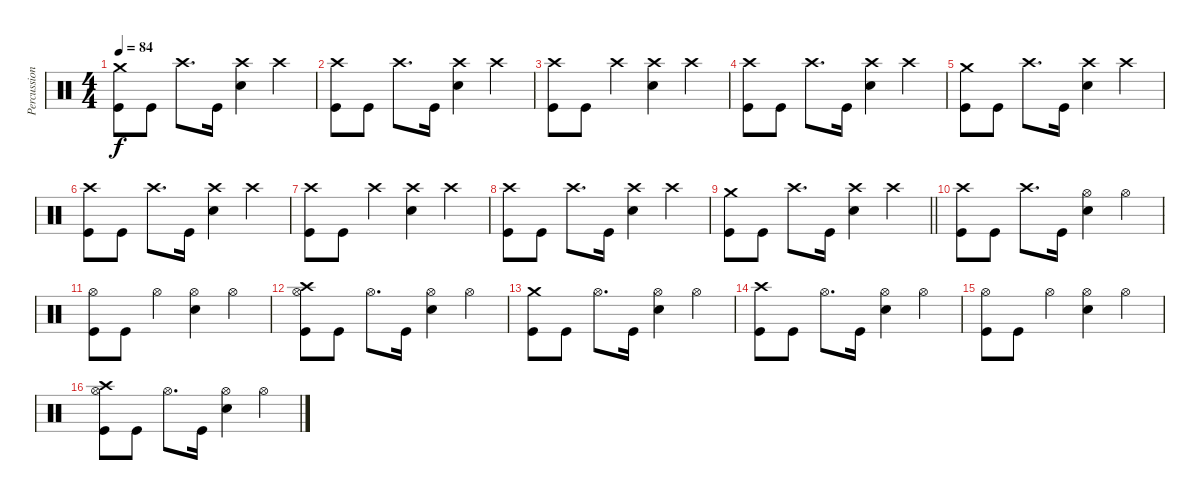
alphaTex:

\track ("Percussions" "Percussion") {instrument percussion}
\staff {score}
\articulation defaults
\ts (4 4)
\tempo 84
\clef neutral
\ks c
("Crash medium (hit)" "Kick (hit)").8{dy f} "Kick (hit)".8 "Crash high (hit)".8{d} "Kick (hit)".16 ("Electric Snare (hit)" "Crash high (hit)").4 "Crash high (hit)".4 |
("Crash high (hit)" "Kick (hit)").8 "Kick (hit)".8 "Crash high (hit)".8{d} "Kick (hit)".16 ("Electric Snare (hit)" "Crash high (hit)").4 "Crash high (hit)".4 |
("Crash high (hit)" "Kick (hit)").8 "Kick (hit)".8 "Crash high (hit)".4 ("Electric Snare (hit)" "Crash high (hit)").4 "Crash high (hit)".4 |
("Crash high (hit)" "Kick (hit)").8 "Kick (hit)".8 "Crash high (hit)".8{d} "Kick (hit)".16 ("Electric Snare (hit)" "Crash high (hit)").4 "Crash high (hit)".4 |
("Crash medium (hit)" "Kick (hit)").8 "Kick (hit)".8 "Crash high (hit)".8{d} "Kick (hit)".16 ("Electric Snare (hit)" "Crash high (hit)").4 "Crash high (hit)".4 |
("Crash high (hit)" "Kick (hit)").8 "Kick (hit)".8 "Crash high (hit)".8{d} "Kick (hit)".16 ("Electric Snare (hit)" "Crash high (hit)").4 "Crash high (hit)".4 |
("Crash high (hit)" "Kick (hit)").8 "Kick (hit)".8 "Crash high (hit)".4 ("Electric Snare (hit)" "Crash high (hit)").4 "Crash high (hit)".4 |
("Crash high (hit)" "Kick (hit)").8 "Kick (hit)".8 "Crash high (hit)".8{d} "Kick (hit)".16 ("Electric Snare (hit)" "Crash high (hit)").4 "Crash high (hit)".4 |
\barLineRight lightlight
("Crash medium (hit)" "Kick (hit)").8 "Kick (hit)".8 "Crash high (hit)".8{d} "Kick (hit)".16 ("Electric Snare (hit)" "Crash high (hit)").4 "Crash high (hit)".4 |
\section ("" "")
("Crash high (hit)" "Kick (hit)").8 "Kick (hit)".8 "Crash high (hit)".8{d} "Kick (hit)".16 ("Electric Snare (hit)" "Hi-Hat (open)").4 "Hi-Hat (open)".4 |
("Hi-Hat (open)" "Kick (hit)").8 "Kick (hit)".8 "Hi-Hat (open)".4 ("Electric Snare (hit)" "Hi-Hat (open)").4 "Hi-Hat (open)".4 |
("Crash high (hit)" "Hi-Hat (open)" "Kick (hit)").8 "Kick (hit)".8 "Hi-Hat (open)".8{d} "Kick (hit)".16 ("Electric Snare (hit)" "Hi-Hat (open)").4 "Hi-Hat (open)".4 |
("Crash medium (hit)" "Kick (hit)").8 "Kick (hit)".8 "Hi-Hat (open)".8{d} "Kick (hit)".16 ("Electric Snare (hit)" "Hi-Hat (open)").4 "Hi-Hat (open)".4 |
("Crash high (hit)" "Kick (hit)").8 "Kick (hit)".8 "Hi-Hat (open)".8{d} "Kick (hit)".16 ("Electric Snare (hit)" "Hi-Hat (open)").4 "Hi-Hat (open)".4 |
("Hi-Hat (open)" "Kick (hit)").8 "Kick (hit)".8 "Hi-Hat (open)".4 ("Electric Snare (hit)" "Hi-Hat (open)").4 "Hi-Hat (open)".4 |
("Crash high (hit)" "Hi-Hat (open)" "Kick (hit)").8 "Kick (hit)".8 "Hi-Hat (open)".8{d} "Kick (hit)".16 ("Electric Snare (hit)" "Hi-Hat (open)").4 "Hi-Hat (open)".4
